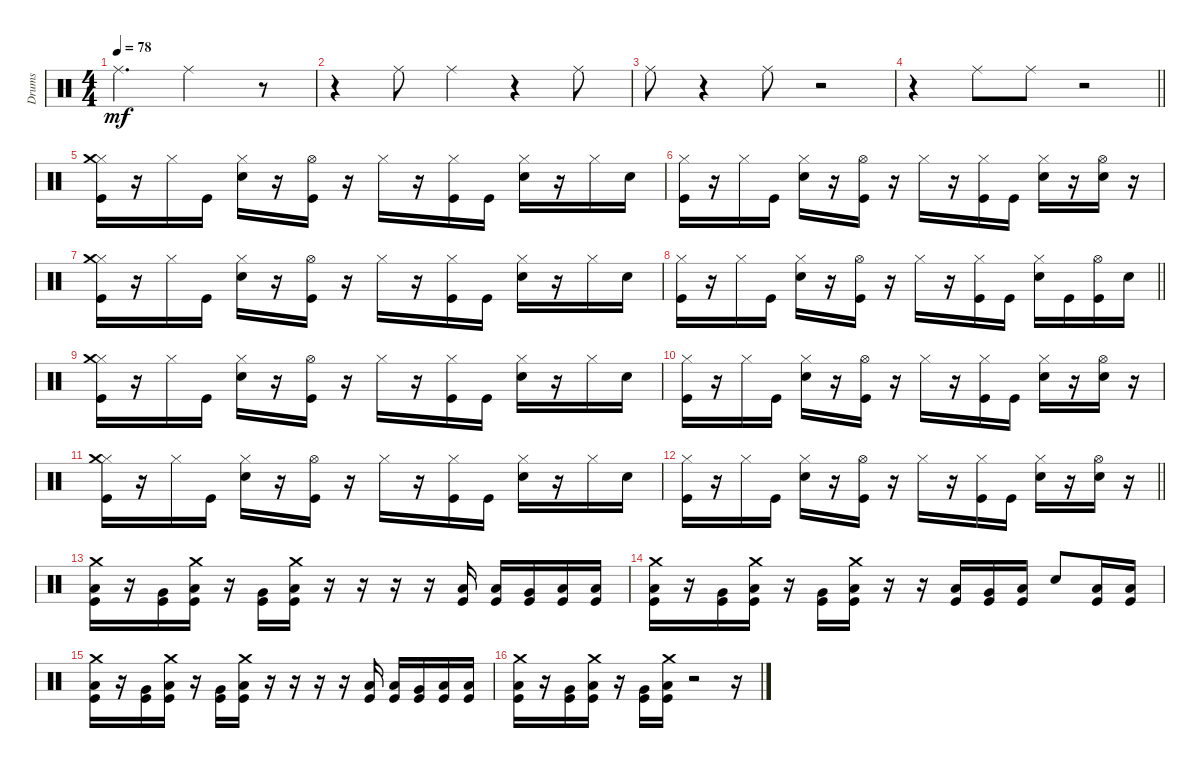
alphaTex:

\track ("Drums" "Drums") {instrument percussion}
\staff {score}
\articulation defaults
\ts (4 4)
\tempo 78
\clef neutral
\ks c "Ride (middle)".4{d dy mf} "Ride (middle)".2
r.8 |
r.4 "Ride (middle)".8 "Ride (middle)".4 r.4 "Ride (middle)".8 |
"Ride (middle)".8 r.4 "Ride (middle)".8 r.2 |
\barLineRight lightlight
r.4 "Ride (middle)".8 "Ride (middle)".8 r.2 |
("Hi-Hat (closed)" "Crash medium (hit)" "Kick (hit)").16 r.16 "Hi-Hat (closed)".16 "Kick (hit)".16 ("Hi-Hat (closed)" "Snare (hit) 2").16 r.16 ("Hi-Hat (open)" "Kick (hit)").16 r.16 "Hi-Hat (closed)".16 r.16 ("Hi-Hat (closed)" "Kick (hit)").16 "Kick (hit)".16 ("Hi-Hat (closed)" "Snare (hit) 2").16 r.16 "Hi-Hat (closed)".16 "Snare (hit) 2".16 |
("Hi-Hat (closed)" "Kick (hit)").16 r.16 "Hi-Hat (closed)".16 "Kick (hit)".16 ("Hi-Hat (closed)" "Snare (hit) 2").16 r.16 ("Hi-Hat (open)" "Kick (hit)").16 r.16 "Hi-Hat (closed)".16 r.16 ("Hi-Hat (closed)" "Kick (hit)").16 "Kick (hit)".16 ("Hi-Hat (closed)" "Snare (hit) 2").16 r.16 ("Hi-Hat (open)" "Snare (hit) 2").16 r.16 |
("Hi-Hat (closed)" "Crash medium (hit)" "Kick (hit)").16 r.16 "Hi-Hat (closed)".16 "Kick (hit)".16 ("Hi-Hat (closed)" "Snare (hit) 2").16 r.16 ("Hi-Hat (open)" "Kick (hit)").16 r.16 "Hi-Hat (closed)".16 r.16 ("Hi-Hat (closed)" "Kick (hit)").16 "Kick (hit)".16 ("Hi-Hat (closed)" "Snare (hit) 2").16 r.16 "Hi-Hat (closed)".16 "Snare (hit) 2".16 |
\barLineRight lightlight
("Hi-Hat (closed)" "Kick (hit)").16 r.16 "Hi-Hat (closed)".16 "Kick (hit)".16 ("Hi-Hat (closed)" "Snare (hit) 2").16 r.16 ("Hi-Hat (open)" "Kick (hit)").16 r.16 "Hi-Hat (closed)".16 r.16 ("Hi-Hat (closed)" "Kick (hit)").16 "Kick (hit)".16 ("Hi-Hat (closed)" "Snare (hit) 2").16 "Kick (hit)".16 ("Hi-Hat (open)" "Kick (hit)").16 "Snare (hit) 2".16 |
("Hi-Hat (closed)" "Crash medium (hit)" "Kick (hit)").16 r.16 "Hi-Hat (closed)".16 "Kick (hit)".16 ("Hi-Hat (closed)" "Snare (hit) 2").16 r.16 ("Hi-Hat (open)" "Kick (hit)").16 r.16 "Hi-Hat (closed)".16 r.16 ("Hi-Hat (closed)" "Kick (hit)").16 "Kick (hit)".16 ("Hi-Hat (closed)" "Snare (hit) 2").16 r.16 "Hi-Hat (closed)".16 "Snare (hit) 2".16 |
("Hi-Hat (closed)" "Kick (hit)").16 r.16 "Hi-Hat (closed)".16 "Kick (hit)".16 ("Hi-Hat (closed)" "Snare (hit) 2").16 r.16 ("Hi-Hat (open)" "Kick (hit)").16 r.16 "Hi-Hat (closed)".16 r.16 ("Hi-Hat (closed)" "Kick (hit)").16 "Kick (hit)".16 ("Hi-Hat (closed)" "Snare (hit) 2").16 r.16 ("Hi-Hat (open)" "Snare (hit) 2").16 r.16 |
("Hi-Hat (closed)" "Crash medium (hit)" "Kick (hit)").16 r.16 "Hi-Hat (closed)".16 "Kick (hit)".16 ("Hi-Hat (closed)" "Snare (hit) 2").16 r.16 ("Hi-Hat (open)" "Kick (hit)").16 r.16 "Hi-Hat (closed)".16 r.16 ("Hi-Hat (closed)" "Kick (hit)").16 "Kick (hit)".16 ("Hi-Hat (closed)" "Snare (hit) 2").16 r.16 "Hi-Hat (closed)".16 "Snare (hit) 2".16 |
\barLineRight lightlight
("Hi-Hat (closed)" "Kick (hit)").16 r.16 "Hi-Hat (closed)".16 "Kick (hit)".16 ("Hi-Hat (closed)" "Snare (hit) 2").16 r.16 ("Hi-Hat (open)" "Kick (hit)").16 r.16 "Hi-Hat (closed)".16 r.16 ("Hi-Hat (closed)" "Kick (hit)").16 "Kick (hit)".16 ("Hi-Hat (closed)" "Snare (hit) 2").16 r.16 ("Hi-Hat (open)" "Snare (hit) 2").16 r.16 |
("Crash medium (hit)" "Kick (hit)" "Low Floor Tom (hit)").16 r.16 ("Kick (hit)" "Very Low Tom (hit)").16 ("Crash medium (hit)" "Kick (hit)" "Low Floor Tom (hit)").16 r.16 ("Kick (hit)" "Very Low Tom (hit)").16 ("Crash medium (hit)" "Kick (hit)" "Low Floor Tom (hit)").16 r.16 r.16 r.16 r.16 ("Kick (hit)" "Low Floor Tom (hit)").16 ("Kick (hit)" "Low Tom (hit)").16 ("Kick (hit)" "Very Low Tom (hit)").16 ("Kick (hit)" "Low Floor Tom (hit)").16 ("Kick (hit)" "Low Tom (hit)").16 |
("Crash medium (hit)" "Kick (hit)" "Low Floor Tom (hit)").16 r.16 ("Kick (hit)" "Very Low Tom (hit)").16 ("Crash medium (hit)" "Kick (hit)" "Low Floor Tom (hit)").16 r.16 ("Kick (hit)" "Very Low Tom (hit)").16 ("Crash medium (hit)" "Kick (hit)" "Low Floor Tom (hit)").16 r.16 r.16 ("Kick (hit)" "Low Floor Tom (hit)").16 ("Kick (hit)" "Very Low Tom (hit)").16 ("Kick (hit)" "Low Floor Tom (hit)").16 "Snare (hit) 2".8 ("Low Floor Tom (hit)" "Kick (hit)").16 ("Low Tom (hit)" "Kick (hit)").16 |
("Crash medium (hit)" "Kick (hit)" "Low Floor Tom (hit)").16 r.16 ("Kick (hit)" "Very Low Tom (hit)").16 ("Crash medium (hit)" "Kick (hit)" "Low Floor Tom (hit)").16 r.16 ("Kick (hit)" "Very Low Tom (hit)").16 ("Crash medium (hit)" "Kick (hit)" "Low Floor Tom (hit)").16 r.16 r.16 r.16 r.16 ("Kick (hit)" "Low Floor Tom (hit)").16 ("Kick (hit)" "Low Tom (hit)").16 ("Kick (hit)" "Very Low Tom (hit)").16 ("Kick (hit)" "Low Floor Tom (hit)").16 ("Kick (hit)" "Low Tom (hit)").16 |
("Crash medium (hit)" "Kick (hit)" "Low Floor Tom (hit)").16 r.16 ("Kick (hit)" "Very Low Tom (hit)").16 ("Crash medium (hit)" "Kick (hit)" "Low Floor Tom (hit)").16 r.16 ("Kick (hit)" "Very Low Tom (hit)").16 ("Crash medium (hit)" "Kick (hit)" "Low Floor Tom (hit)").16 r.2 r.16
